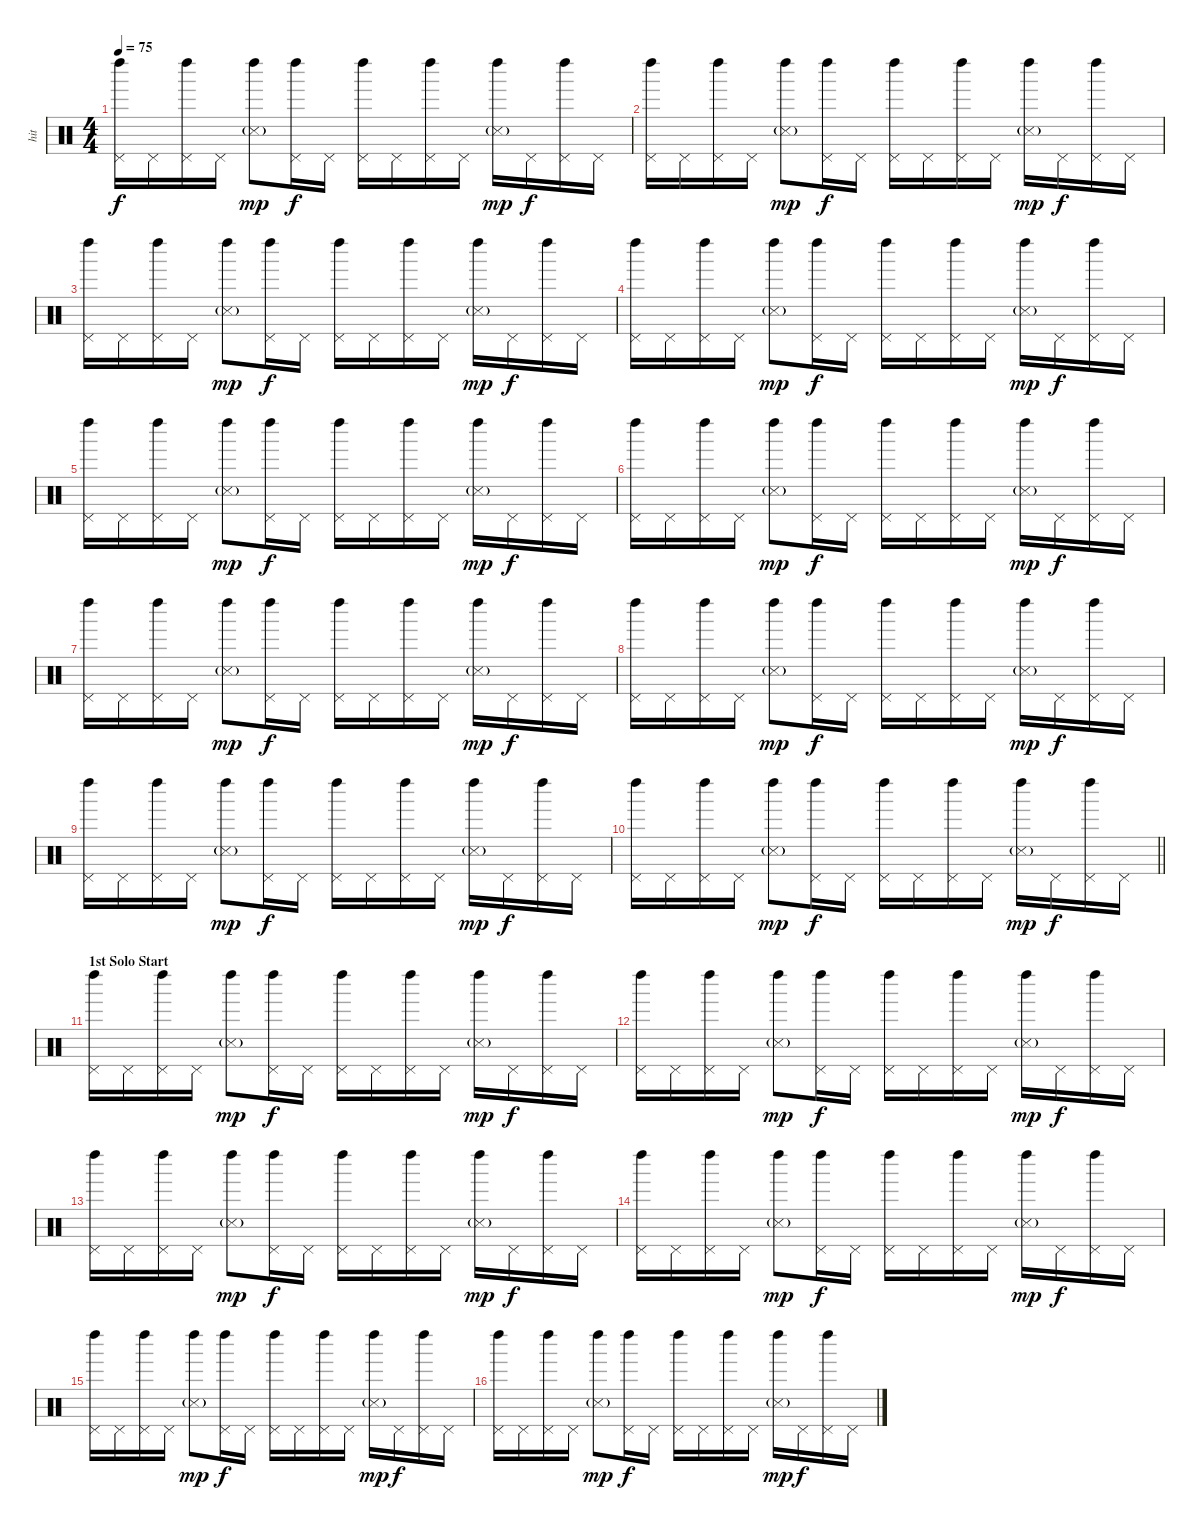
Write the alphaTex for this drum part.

\track ("hit" "hit") {instrument percussion}
\staff {score}
\articulation defaults
\ts (4 4)
\tempo 75
\clef neutral
\ks c
("Pedal Hi-Hat (hit)" "Left Maraca (hit)").16{dy f} "Pedal Hi-Hat (hit)".16 ("Pedal Hi-Hat (hit)" "Left Maraca (hit)").16 "Pedal Hi-Hat (hit)".16 ("Metronome (hit)"{g} "Left Maraca (hit)").8{dy mp} ("Pedal Hi-Hat (hit)" "Left Maraca (hit)").16{dy f} "Pedal Hi-Hat (hit)".16 ("Pedal Hi-Hat (hit)" "Left Maraca (hit)").16 "Pedal Hi-Hat (hit)".16 ("Pedal Hi-Hat (hit)" "Left Maraca (hit)").16 "Pedal Hi-Hat (hit)".16 ("Metronome (hit)"{g} "Left Maraca (hit)").16{dy mp} "Pedal Hi-Hat (hit)".16{dy f} ("Pedal Hi-Hat (hit)" "Left Maraca (hit)").16 "Pedal Hi-Hat (hit)".16 |
("Pedal Hi-Hat (hit)" "Left Maraca (hit)").16 "Pedal Hi-Hat (hit)".16 ("Pedal Hi-Hat (hit)" "Left Maraca (hit)").16 "Pedal Hi-Hat (hit)".16 ("Metronome (hit)"{g} "Left Maraca (hit)").8{dy mp} ("Pedal Hi-Hat (hit)" "Left Maraca (hit)").16{dy f} "Pedal Hi-Hat (hit)".16 ("Pedal Hi-Hat (hit)" "Left Maraca (hit)").16 "Pedal Hi-Hat (hit)".16 ("Pedal Hi-Hat (hit)" "Left Maraca (hit)").16 "Pedal Hi-Hat (hit)".16 ("Metronome (hit)"{g} "Left Maraca (hit)").16{dy mp} "Pedal Hi-Hat (hit)".16{dy f} ("Pedal Hi-Hat (hit)" "Left Maraca (hit)").16 "Pedal Hi-Hat (hit)".16 |
("Pedal Hi-Hat (hit)" "Left Maraca (hit)").16 "Pedal Hi-Hat (hit)".16 ("Pedal Hi-Hat (hit)" "Left Maraca (hit)").16 "Pedal Hi-Hat (hit)".16 ("Metronome (hit)"{g} "Left Maraca (hit)").8{dy mp} ("Pedal Hi-Hat (hit)" "Left Maraca (hit)").16{dy f} "Pedal Hi-Hat (hit)".16 ("Pedal Hi-Hat (hit)" "Left Maraca (hit)").16 "Pedal Hi-Hat (hit)".16 ("Pedal Hi-Hat (hit)" "Left Maraca (hit)").16 "Pedal Hi-Hat (hit)".16 ("Metronome (hit)"{g} "Left Maraca (hit)").16{dy mp} "Pedal Hi-Hat (hit)".16{dy f} ("Pedal Hi-Hat (hit)" "Left Maraca (hit)").16 "Pedal Hi-Hat (hit)".16 |
("Pedal Hi-Hat (hit)" "Left Maraca (hit)").16 "Pedal Hi-Hat (hit)".16 ("Pedal Hi-Hat (hit)" "Left Maraca (hit)").16 "Pedal Hi-Hat (hit)".16 ("Metronome (hit)"{g} "Left Maraca (hit)").8{dy mp} ("Pedal Hi-Hat (hit)" "Left Maraca (hit)").16{dy f} "Pedal Hi-Hat (hit)".16 ("Pedal Hi-Hat (hit)" "Left Maraca (hit)").16 "Pedal Hi-Hat (hit)".16 ("Pedal Hi-Hat (hit)" "Left Maraca (hit)").16 "Pedal Hi-Hat (hit)".16 ("Metronome (hit)"{g} "Left Maraca (hit)").16{dy mp} "Pedal Hi-Hat (hit)".16{dy f} ("Pedal Hi-Hat (hit)" "Left Maraca (hit)").16 "Pedal Hi-Hat (hit)".16 |
("Pedal Hi-Hat (hit)" "Left Maraca (hit)").16 "Pedal Hi-Hat (hit)".16 ("Pedal Hi-Hat (hit)" "Left Maraca (hit)").16 "Pedal Hi-Hat (hit)".16 ("Metronome (hit)"{g} "Left Maraca (hit)").8{dy mp} ("Pedal Hi-Hat (hit)" "Left Maraca (hit)").16{dy f} "Pedal Hi-Hat (hit)".16 ("Pedal Hi-Hat (hit)" "Left Maraca (hit)").16 "Pedal Hi-Hat (hit)".16 ("Pedal Hi-Hat (hit)" "Left Maraca (hit)").16 "Pedal Hi-Hat (hit)".16 ("Metronome (hit)"{g} "Left Maraca (hit)").16{dy mp} "Pedal Hi-Hat (hit)".16{dy f} ("Pedal Hi-Hat (hit)" "Left Maraca (hit)").16 "Pedal Hi-Hat (hit)".16 |
("Pedal Hi-Hat (hit)" "Left Maraca (hit)").16 "Pedal Hi-Hat (hit)".16 ("Pedal Hi-Hat (hit)" "Left Maraca (hit)").16 "Pedal Hi-Hat (hit)".16 ("Metronome (hit)"{g} "Left Maraca (hit)").8{dy mp} ("Pedal Hi-Hat (hit)" "Left Maraca (hit)").16{dy f} "Pedal Hi-Hat (hit)".16 ("Pedal Hi-Hat (hit)" "Left Maraca (hit)").16 "Pedal Hi-Hat (hit)".16 ("Pedal Hi-Hat (hit)" "Left Maraca (hit)").16 "Pedal Hi-Hat (hit)".16 ("Metronome (hit)"{g} "Left Maraca (hit)").16{dy mp} "Pedal Hi-Hat (hit)".16{dy f} ("Pedal Hi-Hat (hit)" "Left Maraca (hit)").16 "Pedal Hi-Hat (hit)".16 |
("Pedal Hi-Hat (hit)" "Left Maraca (hit)").16 "Pedal Hi-Hat (hit)".16 ("Pedal Hi-Hat (hit)" "Left Maraca (hit)").16 "Pedal Hi-Hat (hit)".16 ("Metronome (hit)"{g} "Left Maraca (hit)").8{dy mp} ("Pedal Hi-Hat (hit)" "Left Maraca (hit)").16{dy f} "Pedal Hi-Hat (hit)".16 ("Pedal Hi-Hat (hit)" "Left Maraca (hit)").16 "Pedal Hi-Hat (hit)".16 ("Pedal Hi-Hat (hit)" "Left Maraca (hit)").16 "Pedal Hi-Hat (hit)".16 ("Metronome (hit)"{g} "Left Maraca (hit)").16{dy mp} "Pedal Hi-Hat (hit)".16{dy f} ("Pedal Hi-Hat (hit)" "Left Maraca (hit)").16 "Pedal Hi-Hat (hit)".16 |
("Pedal Hi-Hat (hit)" "Left Maraca (hit)").16 "Pedal Hi-Hat (hit)".16 ("Pedal Hi-Hat (hit)" "Left Maraca (hit)").16 "Pedal Hi-Hat (hit)".16 ("Metronome (hit)"{g} "Left Maraca (hit)").8{dy mp} ("Pedal Hi-Hat (hit)" "Left Maraca (hit)").16{dy f} "Pedal Hi-Hat (hit)".16 ("Pedal Hi-Hat (hit)" "Left Maraca (hit)").16 "Pedal Hi-Hat (hit)".16 ("Pedal Hi-Hat (hit)" "Left Maraca (hit)").16 "Pedal Hi-Hat (hit)".16 ("Metronome (hit)"{g} "Left Maraca (hit)").16{dy mp} "Pedal Hi-Hat (hit)".16{dy f} ("Pedal Hi-Hat (hit)" "Left Maraca (hit)").16 "Pedal Hi-Hat (hit)".16 |
("Pedal Hi-Hat (hit)" "Left Maraca (hit)").16 "Pedal Hi-Hat (hit)".16 ("Pedal Hi-Hat (hit)" "Left Maraca (hit)").16 "Pedal Hi-Hat (hit)".16 ("Metronome (hit)"{g} "Left Maraca (hit)").8{dy mp} ("Pedal Hi-Hat (hit)" "Left Maraca (hit)").16{dy f} "Pedal Hi-Hat (hit)".16 ("Pedal Hi-Hat (hit)" "Left Maraca (hit)").16 "Pedal Hi-Hat (hit)".16 ("Pedal Hi-Hat (hit)" "Left Maraca (hit)").16 "Pedal Hi-Hat (hit)".16 ("Metronome (hit)"{g} "Left Maraca (hit)").16{dy mp} "Pedal Hi-Hat (hit)".16{dy f} ("Pedal Hi-Hat (hit)" "Left Maraca (hit)").16 "Pedal Hi-Hat (hit)".16 |
\barLineRight lightlight
("Pedal Hi-Hat (hit)" "Left Maraca (hit)").16 "Pedal Hi-Hat (hit)".16 ("Pedal Hi-Hat (hit)" "Left Maraca (hit)").16 "Pedal Hi-Hat (hit)".16 ("Metronome (hit)"{g} "Left Maraca (hit)").8{dy mp} ("Pedal Hi-Hat (hit)" "Left Maraca (hit)").16{dy f} "Pedal Hi-Hat (hit)".16 ("Pedal Hi-Hat (hit)" "Left Maraca (hit)").16 "Pedal Hi-Hat (hit)".16 ("Pedal Hi-Hat (hit)" "Left Maraca (hit)").16 "Pedal Hi-Hat (hit)".16 ("Metronome (hit)"{g} "Left Maraca (hit)").16{dy mp} "Pedal Hi-Hat (hit)".16{dy f} ("Pedal Hi-Hat (hit)" "Left Maraca (hit)").16 "Pedal Hi-Hat (hit)".16 |
\section ("" "1st Solo Start")
("Pedal Hi-Hat (hit)" "Left Maraca (hit)").16 "Pedal Hi-Hat (hit)".16 ("Pedal Hi-Hat (hit)" "Left Maraca (hit)").16 "Pedal Hi-Hat (hit)".16 ("Metronome (hit)"{g} "Left Maraca (hit)").8{dy mp} ("Pedal Hi-Hat (hit)" "Left Maraca (hit)").16{dy f} "Pedal Hi-Hat (hit)".16 ("Pedal Hi-Hat (hit)" "Left Maraca (hit)").16 "Pedal Hi-Hat (hit)".16 ("Pedal Hi-Hat (hit)" "Left Maraca (hit)").16 "Pedal Hi-Hat (hit)".16 ("Metronome (hit)"{g} "Left Maraca (hit)").16{dy mp} "Pedal Hi-Hat (hit)".16{dy f} ("Pedal Hi-Hat (hit)" "Left Maraca (hit)").16 "Pedal Hi-Hat (hit)".16 |
("Pedal Hi-Hat (hit)" "Left Maraca (hit)").16 "Pedal Hi-Hat (hit)".16 ("Pedal Hi-Hat (hit)" "Left Maraca (hit)").16 "Pedal Hi-Hat (hit)".16 ("Metronome (hit)"{g} "Left Maraca (hit)").8{dy mp} ("Pedal Hi-Hat (hit)" "Left Maraca (hit)").16{dy f} "Pedal Hi-Hat (hit)".16 ("Pedal Hi-Hat (hit)" "Left Maraca (hit)").16 "Pedal Hi-Hat (hit)".16 ("Pedal Hi-Hat (hit)" "Left Maraca (hit)").16 "Pedal Hi-Hat (hit)".16 ("Metronome (hit)"{g} "Left Maraca (hit)").16{dy mp} "Pedal Hi-Hat (hit)".16{dy f} ("Pedal Hi-Hat (hit)" "Left Maraca (hit)").16 "Pedal Hi-Hat (hit)".16 |
("Pedal Hi-Hat (hit)" "Left Maraca (hit)").16 "Pedal Hi-Hat (hit)".16 ("Pedal Hi-Hat (hit)" "Left Maraca (hit)").16 "Pedal Hi-Hat (hit)".16 ("Metronome (hit)"{g} "Left Maraca (hit)").8{dy mp} ("Pedal Hi-Hat (hit)" "Left Maraca (hit)").16{dy f} "Pedal Hi-Hat (hit)".16 ("Pedal Hi-Hat (hit)" "Left Maraca (hit)").16 "Pedal Hi-Hat (hit)".16 ("Pedal Hi-Hat (hit)" "Left Maraca (hit)").16 "Pedal Hi-Hat (hit)".16 ("Metronome (hit)"{g} "Left Maraca (hit)").16{dy mp} "Pedal Hi-Hat (hit)".16{dy f} ("Pedal Hi-Hat (hit)" "Left Maraca (hit)").16 "Pedal Hi-Hat (hit)".16 |
("Pedal Hi-Hat (hit)" "Left Maraca (hit)").16 "Pedal Hi-Hat (hit)".16 ("Pedal Hi-Hat (hit)" "Left Maraca (hit)").16 "Pedal Hi-Hat (hit)".16 ("Metronome (hit)"{g} "Left Maraca (hit)").8{dy mp} ("Pedal Hi-Hat (hit)" "Left Maraca (hit)").16{dy f} "Pedal Hi-Hat (hit)".16 ("Pedal Hi-Hat (hit)" "Left Maraca (hit)").16 "Pedal Hi-Hat (hit)".16 ("Pedal Hi-Hat (hit)" "Left Maraca (hit)").16 "Pedal Hi-Hat (hit)".16 ("Metronome (hit)"{g} "Left Maraca (hit)").16{dy mp} "Pedal Hi-Hat (hit)".16{dy f} ("Pedal Hi-Hat (hit)" "Left Maraca (hit)").16 "Pedal Hi-Hat (hit)".16 |
("Pedal Hi-Hat (hit)" "Left Maraca (hit)").16 "Pedal Hi-Hat (hit)".16 ("Pedal Hi-Hat (hit)" "Left Maraca (hit)").16 "Pedal Hi-Hat (hit)".16 ("Metronome (hit)"{g} "Left Maraca (hit)").8{dy mp} ("Pedal Hi-Hat (hit)" "Left Maraca (hit)").16{dy f} "Pedal Hi-Hat (hit)".16 ("Pedal Hi-Hat (hit)" "Left Maraca (hit)").16 "Pedal Hi-Hat (hit)".16 ("Pedal Hi-Hat (hit)" "Left Maraca (hit)").16 "Pedal Hi-Hat (hit)".16 ("Metronome (hit)"{g} "Left Maraca (hit)").16{dy mp} "Pedal Hi-Hat (hit)".16{dy f} ("Pedal Hi-Hat (hit)" "Left Maraca (hit)").16 "Pedal Hi-Hat (hit)".16 |
("Pedal Hi-Hat (hit)" "Left Maraca (hit)").16 "Pedal Hi-Hat (hit)".16 ("Pedal Hi-Hat (hit)" "Left Maraca (hit)").16 "Pedal Hi-Hat (hit)".16 ("Metronome (hit)"{g} "Left Maraca (hit)").8{dy mp} ("Pedal Hi-Hat (hit)" "Left Maraca (hit)").16{dy f} "Pedal Hi-Hat (hit)".16 ("Pedal Hi-Hat (hit)" "Left Maraca (hit)").16 "Pedal Hi-Hat (hit)".16 ("Pedal Hi-Hat (hit)" "Left Maraca (hit)").16 "Pedal Hi-Hat (hit)".16 ("Metronome (hit)"{g} "Left Maraca (hit)").16{dy mp} "Pedal Hi-Hat (hit)".16{dy f} ("Pedal Hi-Hat (hit)" "Left Maraca (hit)").16 "Pedal Hi-Hat (hit)".16
